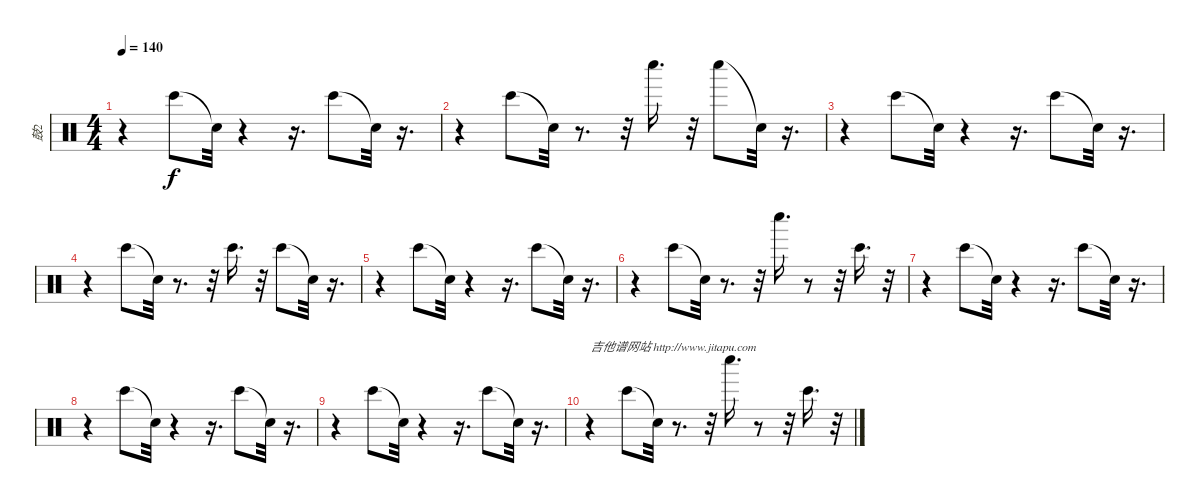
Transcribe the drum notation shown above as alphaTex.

\track ("鼓2" "鼓2") {instrument percussion}
\staff {score}
\articulation defaults
\ts (4 4)
\tempo 140
\clef neutral
\ks c
r.4{dy f} "Bongo High (hit)".8 "Snare (hit)"{t}.32 r.4 r.16{d} "Bongo High (hit)".8 "Snare (hit)"{t}.32 r.16{d} |
r.4 "Bongo High (hit)".8 "Snare (hit)"{t}.32 r.8{d} r.32 "Whistle low (hit)".16{d} r.32 "Whistle low (hit)".8 "Snare (hit)"{t}.32 r.16{d} |
r.4 "Bongo High (hit)".8 "Snare (hit)"{t}.32 r.4 r.16{d} "Bongo High (hit)".8 "Snare (hit)"{t}.32 r.16{d} |
r.4 "Bongo High (hit)".8 "Snare (hit)"{t}.32 r.8{d} r.32 "Bongo High (hit)".16{d} r.32 "Bongo High (hit)".8 "Snare (hit)"{t}.32 r.16{d} |
r.4 "Bongo High (hit)".8 "Snare (hit)"{t}.32 r.4 r.16{d} "Bongo High (hit)".8 "Snare (hit)"{t}.32 r.16{d} |
r.4 "Bongo High (hit)".8 "Snare (hit)"{t}.32 r.8{d} r.32 "Whistle low (hit)".16{d} r.8 r.32 "Bongo High (hit)".16{d} r.32 |
r.4 "Bongo High (hit)".8 "Snare (hit)"{t}.32 r.4 r.16{d} "Bongo High (hit)".8 "Snare (hit)"{t}.32 r.16{d} |
r.4 "Bongo High (hit)".8 "Snare (hit)"{t}.32 r.4 r.16{d} "Bongo High (hit)".8 "Snare (hit)"{t}.32 r.16{d} |
r.4 "Bongo High (hit)".8 "Snare (hit)"{t}.32 r.4 r.16{d} "Bongo High (hit)".8 "Snare (hit)"{t}.32 r.16{d} |
r.4{txt "吉他谱网站 http://www.jitapu.com"} "Bongo High (hit)".8 "Snare (hit)"{t}.32 r.8{d} r.32 "Whistle low (hit)".16{d} r.8 r.32 "Bongo High (hit)".16{d} r.32
